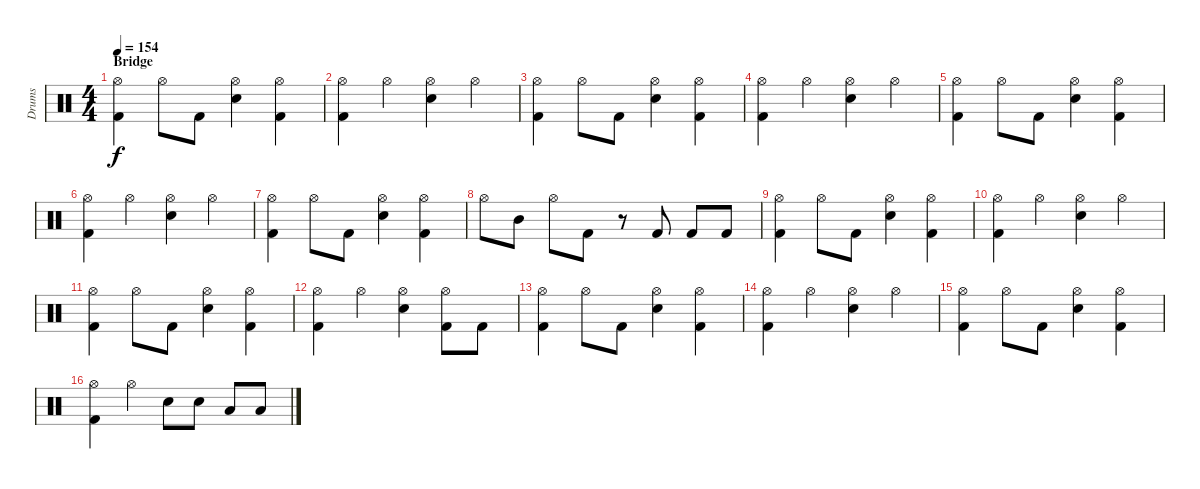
\track ("Drums" "Drums") {instrument percussion}
\staff {score}
\articulation defaults
\ts (4 4)
\section ("" "Bridge")
\tempo 154
\clef neutral
\ks c
("Hi-Hat (open)" "Kick (hit) 2").4{dy f} "Hi-Hat (open)".8 "Kick (hit) 2".8 ("Hi-Hat (open)" "Snare (hit) 2").4 ("Hi-Hat (open)" "Kick (hit) 2").4 |
("Hi-Hat (open)" "Kick (hit) 2").4 "Hi-Hat (open)".4 ("Hi-Hat (open)" "Snare (hit) 2").4 "Hi-Hat (open)".4 |
("Hi-Hat (open)" "Kick (hit) 2").4 "Hi-Hat (open)".8 "Kick (hit) 2".8 ("Hi-Hat (open)" "Snare (hit) 2").4 ("Hi-Hat (open)" "Kick (hit) 2").4 |
("Hi-Hat (open)" "Kick (hit) 2").4 "Hi-Hat (open)".4 ("Hi-Hat (open)" "Snare (hit) 2").4 "Hi-Hat (open)".4 |
("Hi-Hat (open)" "Kick (hit) 2").4 "Hi-Hat (open)".8 "Kick (hit) 2".8 ("Hi-Hat (open)" "Snare (hit) 2").4 ("Hi-Hat (open)" "Kick (hit) 2").4 |
("Hi-Hat (open)" "Kick (hit) 2").4 "Hi-Hat (open)".4 ("Hi-Hat (open)" "Snare (hit) 2").4 "Hi-Hat (open)".4 |
("Hi-Hat (open)" "Kick (hit) 2").4 "Hi-Hat (open)".8 "Kick (hit) 2".8 ("Hi-Hat (open)" "Snare (hit) 2").4 ("Hi-Hat (open)" "Kick (hit) 2").4 |
"Hi-Hat (open)".8 "Mid Tom (hit)".8 "Hi-Hat (open)".8 "Kick (hit) 2".8 r.8 "Kick (hit) 2".8 "Kick (hit) 2".8 "Kick (hit) 2".8 |
("Hi-Hat (open)" "Kick (hit) 2").4 "Hi-Hat (open)".8 "Kick (hit) 2".8 ("Hi-Hat (open)" "Snare (hit) 2").4 ("Hi-Hat (open)" "Kick (hit) 2").4 |
("Hi-Hat (open)" "Kick (hit) 2").4 "Hi-Hat (open)".4 ("Hi-Hat (open)" "Snare (hit) 2").4 "Hi-Hat (open)".4 |
("Hi-Hat (open)" "Kick (hit) 2").4 "Hi-Hat (open)".8 "Kick (hit) 2".8 ("Hi-Hat (open)" "Snare (hit) 2").4 ("Hi-Hat (open)" "Kick (hit) 2").4 |
("Hi-Hat (open)" "Kick (hit) 2").4 "Hi-Hat (open)".4 ("Hi-Hat (open)" "Snare (hit) 2").4 ("Hi-Hat (open)" "Kick (hit) 2").8 "Kick (hit) 2".8 |
("Hi-Hat (open)" "Kick (hit) 2").4 "Hi-Hat (open)".8 "Kick (hit) 2".8 ("Hi-Hat (open)" "Snare (hit) 2").4 ("Hi-Hat (open)" "Kick (hit) 2").4 |
("Hi-Hat (open)" "Kick (hit) 2").4 "Hi-Hat (open)".4 ("Hi-Hat (open)" "Snare (hit) 2").4 "Hi-Hat (open)".4 |
("Hi-Hat (open)" "Kick (hit) 2").4 "Hi-Hat (open)".8 "Kick (hit) 2".8 ("Hi-Hat (open)" "Snare (hit) 2").4 ("Hi-Hat (open)" "Kick (hit) 2").4 |
("Hi-Hat (open)" "Kick (hit) 2").4 "Hi-Hat (open)".4 "Snare (hit) 2".8 "Snare (hit) 2".8 "Low Tom (hit)".8 "Low Tom (hit)".8
